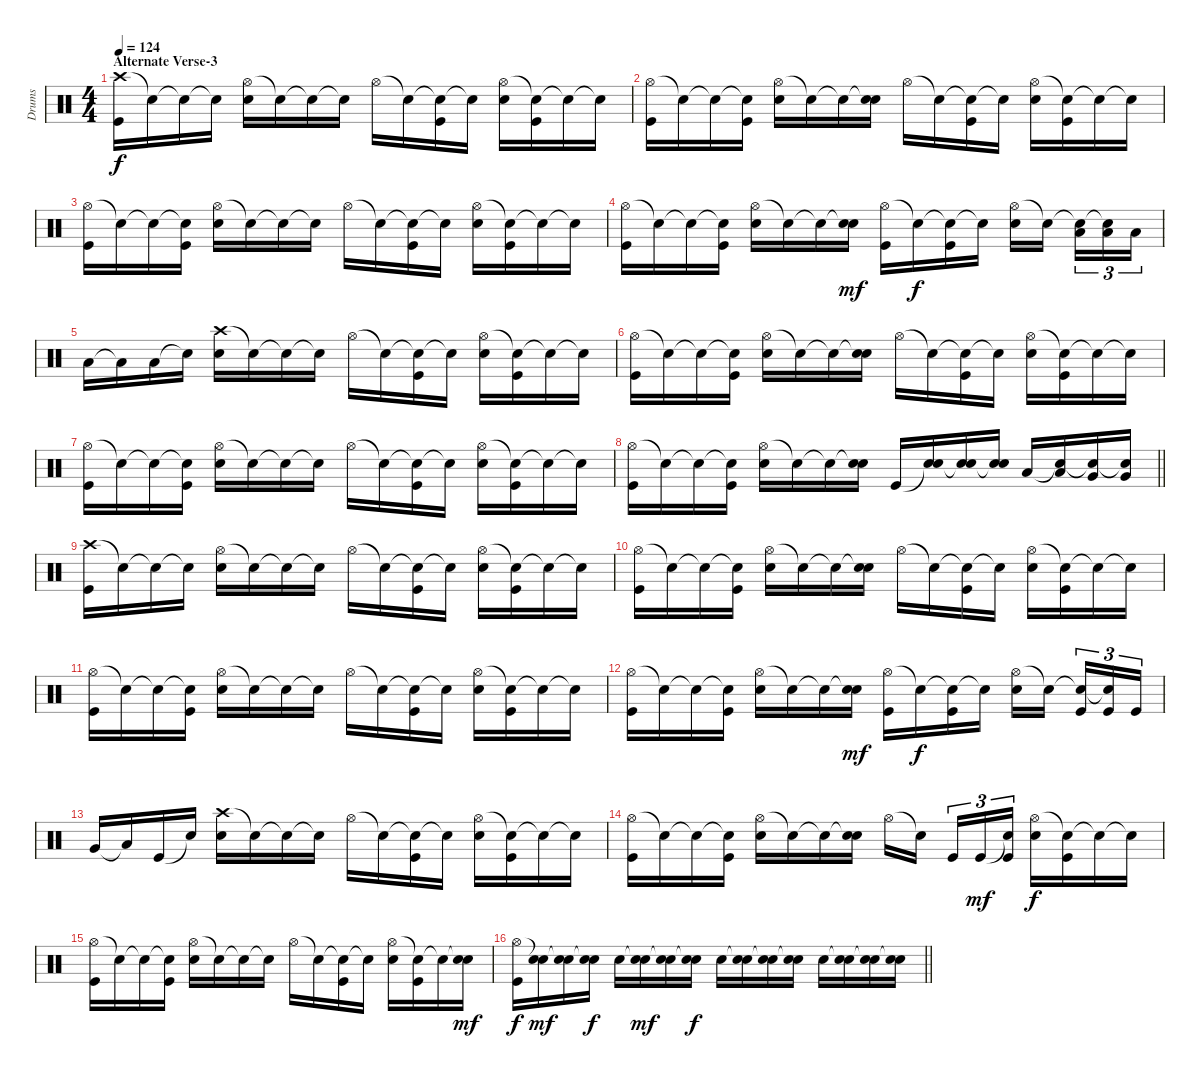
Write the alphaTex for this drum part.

\track ("Drums" "Drums") {instrument percussion}
\staff {score}
\articulation defaults
\ts (4 4)
\section ("" "Alternate Verse-3")
\tempo 124
\clef neutral
\ks c
("Crash high (hit)" "Kick (hit)").16{dy f} "Snare (hit)"{t}.16 "Snare (hit)"{t}.16 "Snare (hit)"{t}.16 ("Hi-Hat (open)" "Electric Snare (hit)").16 "Snare (hit)"{t}.16 "Snare (hit)"{t}.16 "Snare (hit)"{t}.16 "Hi-Hat (open)".16 "Snare (hit)"{t}.16 ("Snare (hit)"{t} "Kick (hit)").16 "Snare (hit)"{t}.16 ("Hi-Hat (open)" "Electric Snare (hit)").16 ("Snare (hit)"{t} "Kick (hit)").16 "Snare (hit)"{t}.16 "Snare (hit)"{t}.16 |
("Hi-Hat (open)" "Kick (hit)").16 "Snare (hit)"{t}.16 "Snare (hit)"{t}.16 ("Snare (hit)"{t} "Kick (hit)").16 ("Hi-Hat (open)" "Electric Snare (hit)").16 "Snare (hit)"{t}.16 "Snare (hit)"{t}.16 ("Snare (hit)"{t} "Electric Snare (hit)").16 "Hi-Hat (open)".16 "Snare (hit)"{t}.16 ("Snare (hit)"{t} "Kick (hit)").16 "Snare (hit)"{t}.16 ("Hi-Hat (open)" "Electric Snare (hit)").16 ("Snare (hit)"{t} "Kick (hit)").16 "Snare (hit)"{t}.16 "Snare (hit)"{t}.16 |
("Hi-Hat (open)" "Kick (hit)").16 "Snare (hit)"{t}.16 "Snare (hit)"{t}.16 ("Snare (hit)"{t} "Kick (hit)").16 ("Hi-Hat (open)" "Electric Snare (hit)").16 "Snare (hit)"{t}.16 "Snare (hit)"{t}.16 "Snare (hit)"{t}.16 "Hi-Hat (open)".16 "Snare (hit)"{t}.16 ("Snare (hit)"{t} "Kick (hit)").16 "Snare (hit)"{t}.16 ("Hi-Hat (open)" "Electric Snare (hit)").16 ("Snare (hit)"{t} "Kick (hit)").16 "Snare (hit)"{t}.16 "Snare (hit)"{t}.16 |
("Hi-Hat (open)" "Kick (hit)").16 "Snare (hit)"{t}.16 "Snare (hit)"{t}.16 ("Snare (hit)"{t} "Kick (hit)").16 ("Hi-Hat (open)" "Electric Snare (hit)").16 "Snare (hit)"{t}.16 "Snare (hit)"{t}.16 ("Snare (hit)"{t} "Electric Snare (hit)").16{dy mf} ("Hi-Hat (open)" "Kick (hit)").16 "Snare (hit)"{t}.16{dy f} ("Snare (hit)"{t} "Kick (hit)").16 "Snare (hit)"{t}.16 ("Hi-Hat (open)" "Electric Snare (hit)").16 "Snare (hit)"{t}.16 ("Snare (hit)"{t} "Low Tom (hit)").16{tu (3 2)} ("Snare (hit)"{t} "Low Tom (hit)").16{tu (3 2)} "Low Tom (hit)".16{tu (3 2)} |
"Low Tom (hit)".16 "Low Floor Tom (hit)"{t}.16 "Low Floor Tom (hit)".16 "Snare (hit)"{t}.16 ("Crash high (hit)" "Electric Snare (hit)").16 "Snare (hit)"{t}.16 "Snare (hit)"{t}.16 "Snare (hit)"{t}.16 "Hi-Hat (open)".16 "Snare (hit)"{t}.16 ("Snare (hit)"{t} "Kick (hit)").16 "Snare (hit)"{t}.16 ("Hi-Hat (open)" "Electric Snare (hit)").16 ("Snare (hit)"{t} "Kick (hit)").16 "Snare (hit)"{t}.16 "Snare (hit)"{t}.16 |
("Hi-Hat (open)" "Kick (hit)").16 "Snare (hit)"{t}.16 "Snare (hit)"{t}.16 ("Snare (hit)"{t} "Kick (hit)").16 ("Hi-Hat (open)" "Electric Snare (hit)").16 "Snare (hit)"{t}.16 "Snare (hit)"{t}.16 ("Snare (hit)"{t} "Electric Snare (hit)").16 "Hi-Hat (open)".16 "Snare (hit)"{t}.16 ("Snare (hit)"{t} "Kick (hit)").16 "Snare (hit)"{t}.16 ("Hi-Hat (open)" "Electric Snare (hit)").16 ("Snare (hit)"{t} "Kick (hit)").16 "Snare (hit)"{t}.16 "Snare (hit)"{t}.16 |
("Hi-Hat (open)" "Kick (hit)").16 "Snare (hit)"{t}.16 "Snare (hit)"{t}.16 ("Snare (hit)"{t} "Kick (hit)").16 ("Hi-Hat (open)" "Electric Snare (hit)").16 "Snare (hit)"{t}.16 "Snare (hit)"{t}.16 "Snare (hit)"{t}.16 "Hi-Hat (open)".16 "Snare (hit)"{t}.16 ("Snare (hit)"{t} "Kick (hit)").16 "Snare (hit)"{t}.16 ("Hi-Hat (open)" "Electric Snare (hit)").16 ("Snare (hit)"{t} "Kick (hit)").16 "Snare (hit)"{t}.16 "Snare (hit)"{t}.16 |
\barLineRight lightlight
("Hi-Hat (open)" "Kick (hit)").16 "Snare (hit)"{t}.16 "Snare (hit)"{t}.16 ("Snare (hit)"{t} "Kick (hit)").16 ("Hi-Hat (open)" "Electric Snare (hit)").16 "Snare (hit)"{t}.16 "Snare (hit)"{t}.16 ("Snare (hit)"{t} "Electric Snare (hit)").16 "Kick (hit)".16 ("Snare (hit)"{t} "Electric Snare (hit)").16 ("Snare (hit)"{t} "Electric Snare (hit)").16 ("Snare (hit)"{t} "Electric Snare (hit)").16 "Low Tom (hit)".16 ("Snare (hit)"{t} "Low Tom (hit)").16 ("Snare (hit)"{t} "Very Low Tom (hit)").16 ("Snare (hit)"{t} "Very Low Tom (hit)").16 |
("Crash high (hit)" "Kick (hit)").16 "Snare (hit)"{t}.16 "Snare (hit)"{t}.16 "Snare (hit)"{t}.16 ("Hi-Hat (open)" "Electric Snare (hit)").16 "Snare (hit)"{t}.16 "Snare (hit)"{t}.16 "Snare (hit)"{t}.16 "Hi-Hat (open)".16 "Snare (hit)"{t}.16 ("Snare (hit)"{t} "Kick (hit)").16 "Snare (hit)"{t}.16 ("Hi-Hat (open)" "Electric Snare (hit)").16 ("Snare (hit)"{t} "Kick (hit)").16 "Snare (hit)"{t}.16 "Snare (hit)"{t}.16 |
("Hi-Hat (open)" "Kick (hit)").16 "Snare (hit)"{t}.16 "Snare (hit)"{t}.16 ("Snare (hit)"{t} "Kick (hit)").16 ("Hi-Hat (open)" "Electric Snare (hit)").16 "Snare (hit)"{t}.16 "Snare (hit)"{t}.16 ("Snare (hit)"{t} "Electric Snare (hit)").16 "Hi-Hat (open)".16 "Snare (hit)"{t}.16 ("Snare (hit)"{t} "Kick (hit)").16 "Snare (hit)"{t}.16 ("Hi-Hat (open)" "Electric Snare (hit)").16 ("Snare (hit)"{t} "Kick (hit)").16 "Snare (hit)"{t}.16 "Snare (hit)"{t}.16 |
("Hi-Hat (open)" "Kick (hit)").16 "Snare (hit)"{t}.16 "Snare (hit)"{t}.16 ("Snare (hit)"{t} "Kick (hit)").16 ("Hi-Hat (open)" "Electric Snare (hit)").16 "Snare (hit)"{t}.16 "Snare (hit)"{t}.16 "Snare (hit)"{t}.16 "Hi-Hat (open)".16 "Snare (hit)"{t}.16 ("Snare (hit)"{t} "Kick (hit)").16 "Snare (hit)"{t}.16 ("Hi-Hat (open)" "Electric Snare (hit)").16 ("Snare (hit)"{t} "Kick (hit)").16 "Snare (hit)"{t}.16 "Snare (hit)"{t}.16 |
("Hi-Hat (open)" "Kick (hit)").16 "Snare (hit)"{t}.16 "Snare (hit)"{t}.16 ("Snare (hit)"{t} "Kick (hit)").16 ("Hi-Hat (open)" "Electric Snare (hit)").16 "Snare (hit)"{t}.16 "Snare (hit)"{t}.16 ("Snare (hit)"{t} "Electric Snare (hit)").16{dy mf} ("Hi-Hat (open)" "Kick (hit)").16 "Snare (hit)"{t}.16{dy f} ("Snare (hit)"{t} "Kick (hit)").16 "Snare (hit)"{t}.16 ("Hi-Hat (open)" "Electric Snare (hit)").16 "Snare (hit)"{t}.16 ("Snare (hit)"{t} "Kick (hit)").16{tu (3 2)} ("Snare (hit)"{t} "Kick (hit)").16{tu (3 2)} "Kick (hit)".16{tu (3 2)} |
"Very Low Tom (hit)".16 "Low Floor Tom (hit)"{t}.16 "Kick (hit)".16 "Snare (hit)"{t}.16 ("Crash high (hit)" "Electric Snare (hit)").16 "Snare (hit)"{t}.16 "Snare (hit)"{t}.16 "Snare (hit)"{t}.16 "Hi-Hat (open)".16 "Snare (hit)"{t}.16 ("Snare (hit)"{t} "Kick (hit)").16 "Snare (hit)"{t}.16 ("Hi-Hat (open)" "Electric Snare (hit)").16 ("Snare (hit)"{t} "Kick (hit)").16 "Snare (hit)"{t}.16 "Snare (hit)"{t}.16 |
("Hi-Hat (open)" "Kick (hit)").16 "Snare (hit)"{t}.16 "Snare (hit)"{t}.16 ("Snare (hit)"{t} "Kick (hit)").16 ("Hi-Hat (open)" "Electric Snare (hit)").16 "Snare (hit)"{t}.16 "Snare (hit)"{t}.16 ("Snare (hit)"{t} "Electric Snare (hit)").16 "Hi-Hat (open)".16 "Snare (hit)"{t}.16 "Kick (hit)".16{tu (3 2)} "Kick (hit)".16{tu (3 2) dy mf} ("Snare (hit)"{t} "Kick (hit)").16{tu (3 2)} ("Hi-Hat (open)" "Electric Snare (hit)").16{dy f} ("Snare (hit)"{t} "Kick (hit)").16 "Snare (hit)"{t}.16 "Snare (hit)"{t}.16 |
("Hi-Hat (open)" "Kick (hit)").16 "Snare (hit)"{t}.16 "Snare (hit)"{t}.16 ("Snare (hit)"{t} "Kick (hit)").16 ("Hi-Hat (open)" "Electric Snare (hit)").16 "Snare (hit)"{t}.16 "Snare (hit)"{t}.16 "Snare (hit)"{t}.16 "Hi-Hat (open)".16 "Snare (hit)"{t}.16 ("Snare (hit)"{t} "Kick (hit)").16 "Snare (hit)"{t}.16 ("Hi-Hat (open)" "Electric Snare (hit)").16 ("Snare (hit)"{t} "Kick (hit)").16 "Snare (hit)"{t}.16 ("Snare (hit)"{t} "Electric Snare (hit)").16{dy mf} |
\barLineRight lightlight
("Hi-Hat (open)" "Kick (hit)").16{dy f} ("Snare (hit)"{t} "Electric Snare (hit)").16{dy mf} ("Snare (hit)"{t} "Electric Snare (hit)").16 ("Snare (hit)"{t} "Electric Snare (hit)").16{dy f} "Electric Snare (hit)".16 ("Snare (hit)"{t} "Electric Snare (hit)").16{dy mf} ("Snare (hit)"{t} "Electric Snare (hit)").16 ("Snare (hit)"{t} "Electric Snare (hit)").16{dy f} "Electric Snare (hit)".16 ("Snare (hit)"{t} "Electric Snare (hit)").16 ("Snare (hit)"{t} "Electric Snare (hit)").16 ("Snare (hit)"{t} "Electric Snare (hit)").16 "Electric Snare (hit)".16 ("Snare (hit)"{t} "Electric Snare (hit)").16 ("Snare (hit)"{t} "Electric Snare (hit)").16 ("Snare (hit)"{t} "Electric Snare (hit)").16
